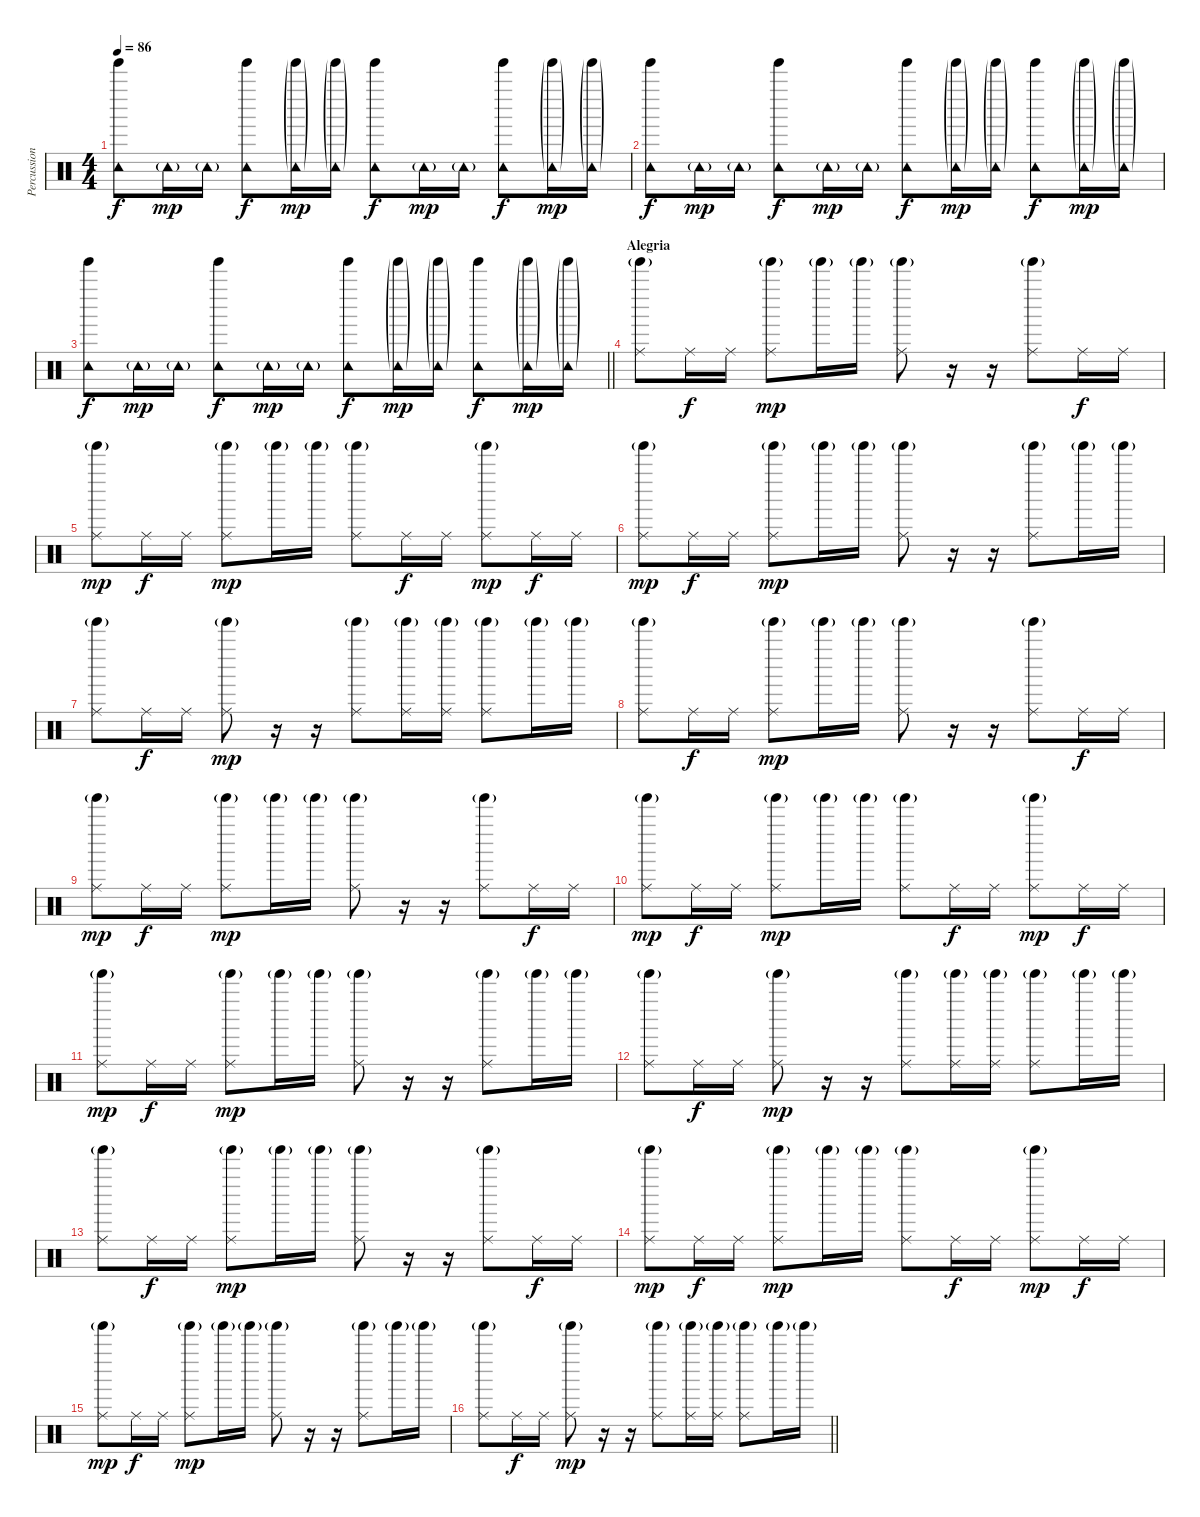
\track ("Percussion 1" "Percussion") {instrument percussion}
\staff {score}
\articulation defaults
\ts (4 4)
\tempo 86
\clef neutral
\ks c
("Tinkle Bell (hit)" "Tambourine (hit)").8{dy f} "Tambourine (hit)"{g}.16{dy mp} "Tambourine (hit)"{g}.16 ("Tinkle Bell (hit)" "Tambourine (hit)").8{dy f} ("Tinkle Bell (hit)"{g} "Tambourine (hit)"{g}).16{dy mp} ("Tinkle Bell (hit)"{g} "Tambourine (hit)"{g}).16 ("Tinkle Bell (hit)" "Tambourine (hit)").8{dy f} "Tambourine (hit)"{g}.16{dy mp} "Tambourine (hit)"{g}.16 ("Tinkle Bell (hit)" "Tambourine (hit)").8{dy f} ("Tinkle Bell (hit)"{g} "Tambourine (hit)"{g}).16{dy mp} ("Tinkle Bell (hit)"{g} "Tambourine (hit)"{g}).16 |
("Tinkle Bell (hit)" "Tambourine (hit)").8{dy f} "Tambourine (hit)"{g}.16{dy mp} "Tambourine (hit)"{g}.16 ("Tinkle Bell (hit)" "Tambourine (hit)").8{dy f} "Tambourine (hit)"{g}.16{dy mp} "Tambourine (hit)"{g}.16 ("Tinkle Bell (hit)" "Tambourine (hit)").8{dy f} ("Tinkle Bell (hit)"{g} "Tambourine (hit)"{g}).16{dy mp} ("Tinkle Bell (hit)"{g} "Tambourine (hit)"{g}).16 ("Tinkle Bell (hit)" "Tambourine (hit)").8{dy f} ("Tinkle Bell (hit)"{g} "Tambourine (hit)"{g}).16{dy mp} ("Tinkle Bell (hit)"{g} "Tambourine (hit)"{g}).16 |
\barLineRight lightlight
("Tinkle Bell (hit)" "Tambourine (hit)").8{dy f} "Tambourine (hit)"{g}.16{dy mp} "Tambourine (hit)"{g}.16 ("Tinkle Bell (hit)" "Tambourine (hit)").8{dy f} "Tambourine (hit)"{g}.16{dy mp} "Tambourine (hit)"{g}.16 ("Tinkle Bell (hit)" "Tambourine (hit)").8{dy f} ("Tinkle Bell (hit)"{g} "Tambourine (hit)"{g}).16{dy mp} ("Tinkle Bell (hit)"{g} "Tambourine (hit)"{g}).16 ("Tinkle Bell (hit)" "Tambourine (hit)").8{dy f} ("Tinkle Bell (hit)"{g} "Tambourine (hit)"{g}).16{dy mp} ("Tinkle Bell (hit)"{g} "Tambourine (hit)"{g}).16 |
\section ("" "Alegria")
("Tinkle Bell (hit)"{g} "Ride (middle)").8 "Ride (middle)".16{dy f} "Ride (middle)".16 ("Tinkle Bell (hit)"{g} "Ride (middle)").8{dy mp} "Tinkle Bell (hit)"{g}.16 "Tinkle Bell (hit)"{g}.16 ("Tinkle Bell (hit)"{g} "Ride (middle)").8 r.16 r.16 ("Tinkle Bell (hit)"{g} "Ride (middle)").8 "Ride (middle)".16{dy f} "Ride (middle)".16 |
("Tinkle Bell (hit)"{g} "Ride (middle)").8{dy mp} "Ride (middle)".16{dy f} "Ride (middle)".16 ("Tinkle Bell (hit)"{g} "Ride (middle)").8{dy mp} "Tinkle Bell (hit)"{g}.16 "Tinkle Bell (hit)"{g}.16 ("Tinkle Bell (hit)"{g} "Ride (middle)").8 "Ride (middle)".16{dy f} "Ride (middle)".16 ("Tinkle Bell (hit)"{g} "Ride (middle)").8{dy mp} "Ride (middle)".16{dy f} "Ride (middle)".16 |
("Tinkle Bell (hit)"{g} "Ride (middle)").8{dy mp} "Ride (middle)".16{dy f} "Ride (middle)".16 ("Tinkle Bell (hit)"{g} "Ride (middle)").8{dy mp} "Tinkle Bell (hit)"{g}.16 "Tinkle Bell (hit)"{g}.16 ("Tinkle Bell (hit)"{g} "Ride (middle)").8 r.16 r.16 ("Tinkle Bell (hit)"{g} "Ride (middle)").8 "Tinkle Bell (hit)"{g}.16 "Tinkle Bell (hit)"{g}.16 |
("Tinkle Bell (hit)"{g} "Ride (middle)").8 "Ride (middle)".16{dy f} "Ride (middle)".16 ("Tinkle Bell (hit)"{g} "Ride (middle)").8{dy mp} r.16 r.16 ("Tinkle Bell (hit)"{g} "Ride (middle)").8 ("Tinkle Bell (hit)"{g} "Ride (middle)").16 ("Tinkle Bell (hit)"{g} "Ride (middle)").16 ("Tinkle Bell (hit)"{g} "Ride (middle)").8 "Tinkle Bell (hit)"{g}.16 "Tinkle Bell (hit)"{g}.16 |
("Tinkle Bell (hit)"{g} "Ride (middle)").8 "Ride (middle)".16{dy f} "Ride (middle)".16 ("Tinkle Bell (hit)"{g} "Ride (middle)").8{dy mp} "Tinkle Bell (hit)"{g}.16 "Tinkle Bell (hit)"{g}.16 ("Tinkle Bell (hit)"{g} "Ride (middle)").8 r.16 r.16 ("Tinkle Bell (hit)"{g} "Ride (middle)").8 "Ride (middle)".16{dy f} "Ride (middle)".16 |
("Tinkle Bell (hit)"{g} "Ride (middle)").8{dy mp} "Ride (middle)".16{dy f} "Ride (middle)".16 ("Tinkle Bell (hit)"{g} "Ride (middle)").8{dy mp} "Tinkle Bell (hit)"{g}.16 "Tinkle Bell (hit)"{g}.16 ("Tinkle Bell (hit)"{g} "Ride (middle)").8 r.16 r.16 ("Tinkle Bell (hit)"{g} "Ride (middle)").8 "Ride (middle)".16{dy f} "Ride (middle)".16 |
("Tinkle Bell (hit)"{g} "Ride (middle)").8{dy mp} "Ride (middle)".16{dy f} "Ride (middle)".16 ("Tinkle Bell (hit)"{g} "Ride (middle)").8{dy mp} "Tinkle Bell (hit)"{g}.16 "Tinkle Bell (hit)"{g}.16 ("Tinkle Bell (hit)"{g} "Ride (middle)").8 "Ride (middle)".16{dy f} "Ride (middle)".16 ("Tinkle Bell (hit)"{g} "Ride (middle)").8{dy mp} "Ride (middle)".16{dy f} "Ride (middle)".16 |
("Tinkle Bell (hit)"{g} "Ride (middle)").8{dy mp} "Ride (middle)".16{dy f} "Ride (middle)".16 ("Tinkle Bell (hit)"{g} "Ride (middle)").8{dy mp} "Tinkle Bell (hit)"{g}.16 "Tinkle Bell (hit)"{g}.16 ("Tinkle Bell (hit)"{g} "Ride (middle)").8 r.16 r.16 ("Tinkle Bell (hit)"{g} "Ride (middle)").8 "Tinkle Bell (hit)"{g}.16 "Tinkle Bell (hit)"{g}.16 |
("Tinkle Bell (hit)"{g} "Ride (middle)").8 "Ride (middle)".16{dy f} "Ride (middle)".16 ("Tinkle Bell (hit)"{g} "Ride (middle)").8{dy mp} r.16 r.16 ("Tinkle Bell (hit)"{g} "Ride (middle)").8 ("Tinkle Bell (hit)"{g} "Ride (middle)").16 ("Tinkle Bell (hit)"{g} "Ride (middle)").16 ("Tinkle Bell (hit)"{g} "Ride (middle)").8 "Tinkle Bell (hit)"{g}.16 "Tinkle Bell (hit)"{g}.16 |
("Tinkle Bell (hit)"{g} "Ride (middle)").8 "Ride (middle)".16{dy f} "Ride (middle)".16 ("Tinkle Bell (hit)"{g} "Ride (middle)").8{dy mp} "Tinkle Bell (hit)"{g}.16 "Tinkle Bell (hit)"{g}.16 ("Tinkle Bell (hit)"{g} "Ride (middle)").8 r.16 r.16 ("Tinkle Bell (hit)"{g} "Ride (middle)").8 "Ride (middle)".16{dy f} "Ride (middle)".16 |
("Tinkle Bell (hit)"{g} "Ride (middle)").8{dy mp} "Ride (middle)".16{dy f} "Ride (middle)".16 ("Tinkle Bell (hit)"{g} "Ride (middle)").8{dy mp} "Tinkle Bell (hit)"{g}.16 "Tinkle Bell (hit)"{g}.16 ("Tinkle Bell (hit)"{g} "Ride (middle)").8 "Ride (middle)".16{dy f} "Ride (middle)".16 ("Tinkle Bell (hit)"{g} "Ride (middle)").8{dy mp} "Ride (middle)".16{dy f} "Ride (middle)".16 |
("Tinkle Bell (hit)"{g} "Ride (middle)").8{dy mp} "Ride (middle)".16{dy f} "Ride (middle)".16 ("Tinkle Bell (hit)"{g} "Ride (middle)").8{dy mp} "Tinkle Bell (hit)"{g}.16 "Tinkle Bell (hit)"{g}.16 ("Tinkle Bell (hit)"{g} "Ride (middle)").8 r.16 r.16 ("Tinkle Bell (hit)"{g} "Ride (middle)").8 "Tinkle Bell (hit)"{g}.16 "Tinkle Bell (hit)"{g}.16 |
\barLineRight lightlight
("Tinkle Bell (hit)"{g} "Ride (middle)").8 "Ride (middle)".16{dy f} "Ride (middle)".16 ("Tinkle Bell (hit)"{g} "Ride (middle)").8{dy mp} r.16 r.16 ("Tinkle Bell (hit)"{g} "Ride (middle)").8 ("Tinkle Bell (hit)"{g} "Ride (middle)").16 ("Tinkle Bell (hit)"{g} "Ride (middle)").16 ("Tinkle Bell (hit)"{g} "Ride (middle)").8 "Tinkle Bell (hit)"{g}.16 "Tinkle Bell (hit)"{g}.16
